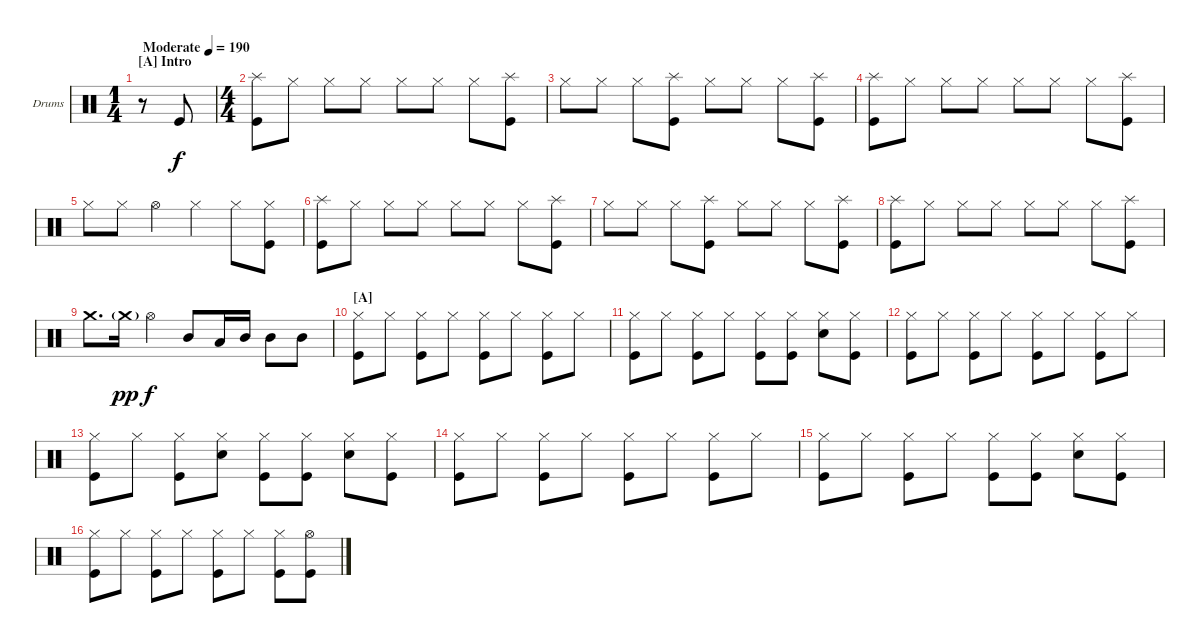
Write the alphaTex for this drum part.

\bracketExtendMode groupsimilarinstruments
\firstSystemTrackNameOrientation horizontal
\otherSystemsTrackNameOrientation horizontal
\track ("Drums" "Drums") {instrument percussion}
\staff {score}
\articulation defaults
\ts (1 4)
\beaming (8 2)
\section ("A" "Intro")
\tempo (190 "Moderate")
\clef neutral
\scale
0.409091
\ks c
r.8{dy f} "Kick (hit)".8 |
\ts (4 4)
\beaming (8 2 2 2 2)
\scale
0.409091 ("Splash (hit)" "Kick (hit)").8 "Hi-Hat (closed)".8 "Hi-Hat (closed)".8 "Hi-Hat (closed)".8 "Hi-Hat (closed)".8 "Hi-Hat (closed)".8 "Hi-Hat (closed)".8 ("Splash (hit)" "Kick (hit)").8 |
\scale
0.181818 "Hi-Hat (closed)".8 "Hi-Hat (closed)".8 "Hi-Hat (closed)".8 ("Splash (hit)" "Kick (hit)").8 "Hi-Hat (closed)".8 "Hi-Hat (closed)".8 "Hi-Hat (closed)".8 ("Splash (hit)" "Kick (hit)").8 |
\scale
0.333333 ("Splash (hit)" "Kick (hit)").8 "Hi-Hat (closed)".8 "Hi-Hat (closed)".8 "Hi-Hat (closed)".8 "Hi-Hat (closed)".8 "Hi-Hat (closed)".8 "Hi-Hat (closed)".8 ("Splash (hit)" "Kick (hit)").8 |
\scale
0.333333 "Hi-Hat (closed)".8 "Hi-Hat (closed)".8 "Hi-Hat (open)".4 "Hi-Hat (closed)".4 "Hi-Hat (closed)".8 ("Hi-Hat (closed)" "Kick (hit)").8 |
\scale
0.333333 ("Splash (hit)" "Kick (hit)").8 "Hi-Hat (closed)".8 "Hi-Hat (closed)".8 "Hi-Hat (closed)".8 "Hi-Hat (closed)".8 "Hi-Hat (closed)".8 "Hi-Hat (closed)".8 ("Splash (hit)" "Kick (hit)").8 |
\scale
0.333333 "Hi-Hat (closed)".8 "Hi-Hat (closed)".8 "Hi-Hat (closed)".8 ("Splash (hit)" "Kick (hit)").8 "Hi-Hat (closed)".8 "Hi-Hat (closed)".8 "Hi-Hat (closed)".8 ("Splash (hit)" "Kick (hit)").8 |
\scale
0.333333 ("Splash (hit)" "Kick (hit)").8 "Hi-Hat (closed)".8 "Hi-Hat (closed)".8 "Hi-Hat (closed)".8 "Hi-Hat (closed)".8 "Hi-Hat (closed)".8 "Hi-Hat (closed)".8 ("Splash (hit)" "Kick (hit)").8 |
\scale
0.333333 "Crash medium (hit)".8{d} "Crash medium (hit)"{g}.16{dy pp} "Hi-Hat (open)".4{dy f} "Mid Tom (hit)".8 "Low Tom (hit)".16 "Mid Tom (hit)".16 "Mid Tom (hit)".8 "Mid Tom (hit)".8 |
\section ("A" "")
\scale
0.333333 ("Hi-Hat (closed)" "Kick (hit)").8 "Hi-Hat (closed)".8 ("Hi-Hat (closed)" "Kick (hit)").8 "Hi-Hat (closed)".8 ("Hi-Hat (closed)" "Kick (hit)").8 "Hi-Hat (closed)".8 ("Hi-Hat (closed)" "Kick (hit)").8 "Hi-Hat (closed)".8 |
\scale
0.333333 ("Hi-Hat (closed)" "Kick (hit)").8 "Hi-Hat (closed)".8 ("Hi-Hat (closed)" "Kick (hit)").8 "Hi-Hat (closed)".8 ("Hi-Hat (closed)" "Kick (hit)").8 ("Hi-Hat (closed)" "Kick (hit)").8 ("Hi-Hat (closed)" "Snare (hit) 2").8 ("Hi-Hat (closed)" "Kick (hit)").8 |
\scale
0.333333 ("Hi-Hat (closed)" "Kick (hit)").8 "Hi-Hat (closed)".8 ("Hi-Hat (closed)" "Kick (hit)").8 "Hi-Hat (closed)".8 ("Hi-Hat (closed)" "Kick (hit)").8 "Hi-Hat (closed)".8 ("Hi-Hat (closed)" "Kick (hit)").8 "Hi-Hat (closed)".8 |
\scale
0.333333 ("Hi-Hat (closed)" "Kick (hit)").8 "Hi-Hat (closed)".8 ("Hi-Hat (closed)" "Kick (hit)").8 ("Hi-Hat (closed)" "Snare (hit) 2").8 ("Hi-Hat (closed)" "Kick (hit)").8 ("Hi-Hat (closed)" "Kick (hit)").8 ("Hi-Hat (closed)" "Snare (hit) 2").8 ("Hi-Hat (closed)" "Kick (hit)").8 |
\scale
0.333333 ("Hi-Hat (closed)" "Kick (hit)").8 "Hi-Hat (closed)".8 ("Hi-Hat (closed)" "Kick (hit)").8 "Hi-Hat (closed)".8 ("Hi-Hat (closed)" "Kick (hit)").8 "Hi-Hat (closed)".8 ("Hi-Hat (closed)" "Kick (hit)").8 "Hi-Hat (closed)".8 |
\scale
0.333333 ("Hi-Hat (closed)" "Kick (hit)").8 "Hi-Hat (closed)".8 ("Hi-Hat (closed)" "Kick (hit)").8 "Hi-Hat (closed)".8 ("Hi-Hat (closed)" "Kick (hit)").8 ("Hi-Hat (closed)" "Kick (hit)").8 ("Hi-Hat (closed)" "Snare (hit) 2").8 ("Hi-Hat (closed)" "Kick (hit)").8 |
\scale
0.333333 ("Hi-Hat (closed)" "Kick (hit)").8 "Hi-Hat (closed)".8 ("Hi-Hat (closed)" "Kick (hit)").8 "Hi-Hat (closed)".8 ("Hi-Hat (closed)" "Kick (hit)").8 "Hi-Hat (closed)".8 ("Hi-Hat (closed)" "Kick (hit)").8 ("Hi-Hat (open)" "Kick (hit)").8
